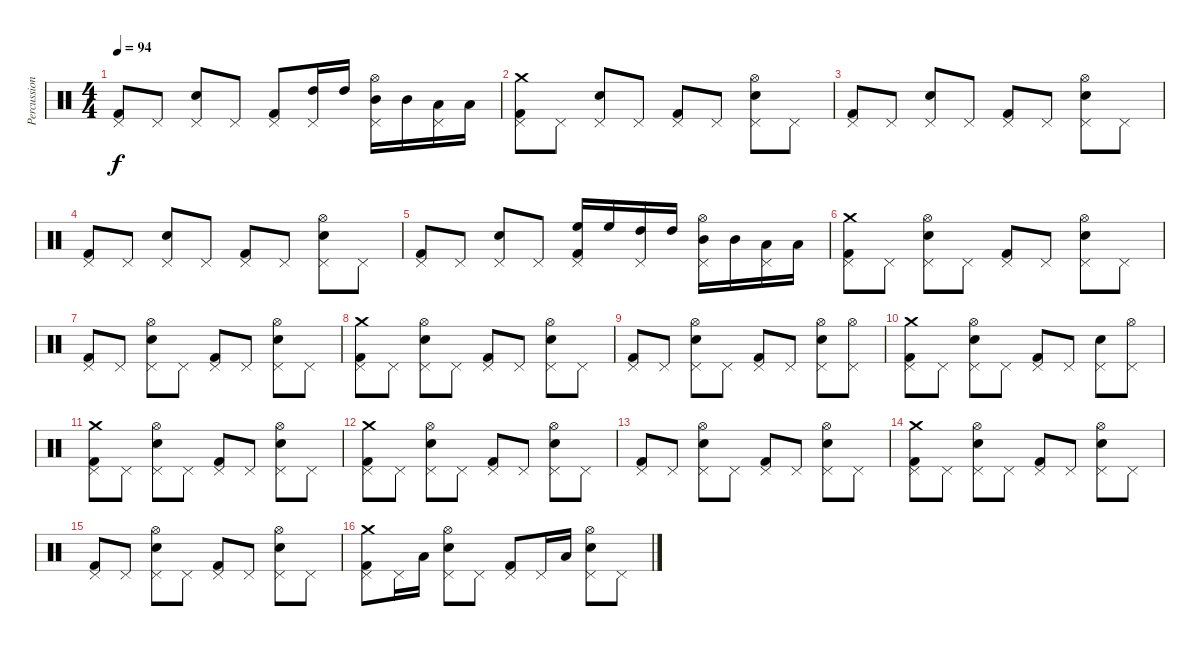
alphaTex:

\track ("Percussions" "Percussion") {instrument percussion}
\staff {score}
\articulation defaults
\ts (4 4)
\tempo 94
\clef neutral
\ks c
("Pedal Hi-Hat (hit)" "Kick (hit) 2").8{dy f} "Pedal Hi-Hat (hit)".8 ("Pedal Hi-Hat (hit)" "Electric Snare (hit)").8 "Pedal Hi-Hat (hit)".8 ("Pedal Hi-Hat (hit)" "Kick (hit) 2").8 ("Pedal Hi-Hat (hit)" "High Tom (hit)").16 "High Tom (hit)".16 ("Pedal Hi-Hat (hit)" "Mid Tom (hit)" "Hi-Hat (open)").16 "Mid Tom (hit)".16 ("Pedal Hi-Hat (hit)" "Low Tom (hit)").16 "Low Tom (hit)".16 |
("Pedal Hi-Hat (hit)" "Crash medium (hit)" "Kick (hit) 2").8 "Pedal Hi-Hat (hit)".8 ("Pedal Hi-Hat (hit)" "Electric Snare (hit)").8 "Pedal Hi-Hat (hit)".8 ("Pedal Hi-Hat (hit)" "Kick (hit) 2").8 "Pedal Hi-Hat (hit)".8 ("Pedal Hi-Hat (hit)" "Electric Snare (hit)" "Hi-Hat (open)").8 "Pedal Hi-Hat (hit)".8 |
("Pedal Hi-Hat (hit)" "Kick (hit) 2").8 "Pedal Hi-Hat (hit)".8 ("Pedal Hi-Hat (hit)" "Electric Snare (hit)").8 "Pedal Hi-Hat (hit)".8 ("Pedal Hi-Hat (hit)" "Kick (hit) 2").8 "Pedal Hi-Hat (hit)".8 ("Pedal Hi-Hat (hit)" "Electric Snare (hit)" "Hi-Hat (open)").8 "Pedal Hi-Hat (hit)".8 |
("Pedal Hi-Hat (hit)" "Kick (hit) 2").8 "Pedal Hi-Hat (hit)".8 ("Pedal Hi-Hat (hit)" "Electric Snare (hit)").8 "Pedal Hi-Hat (hit)".8 ("Pedal Hi-Hat (hit)" "Kick (hit) 2").8 "Pedal Hi-Hat (hit)".8 ("Pedal Hi-Hat (hit)" "Electric Snare (hit)" "Hi-Hat (open)").8 "Pedal Hi-Hat (hit)".8 |
("Pedal Hi-Hat (hit)" "Kick (hit) 2").8 "Pedal Hi-Hat (hit)".8 ("Pedal Hi-Hat (hit)" "Electric Snare (hit)").8 "Pedal Hi-Hat (hit)".8 ("Pedal Hi-Hat (hit)" "High Floor Tom (hit)" "Kick (hit) 2").16 "High Floor Tom (hit)".16 ("Pedal Hi-Hat (hit)" "High Tom (hit)").16 "High Tom (hit)".16 ("Pedal Hi-Hat (hit)" "Mid Tom (hit)" "Hi-Hat (open)").16 "Mid Tom (hit)".16 ("Pedal Hi-Hat (hit)" "Low Tom (hit)").16 "Low Tom (hit)".16 |
("Pedal Hi-Hat (hit)" "Crash medium (hit)" "Kick (hit) 2").8 "Pedal Hi-Hat (hit)".8 ("Pedal Hi-Hat (hit)" "Electric Snare (hit)" "Hi-Hat (open)").8 "Pedal Hi-Hat (hit)".8 ("Pedal Hi-Hat (hit)" "Kick (hit) 2").8 "Pedal Hi-Hat (hit)".8 ("Pedal Hi-Hat (hit)" "Electric Snare (hit)" "Hi-Hat (open)").8 "Pedal Hi-Hat (hit)".8 |
("Pedal Hi-Hat (hit)" "Kick (hit) 2").8 "Pedal Hi-Hat (hit)".8 ("Pedal Hi-Hat (hit)" "Electric Snare (hit)" "Hi-Hat (open)").8 "Pedal Hi-Hat (hit)".8 ("Pedal Hi-Hat (hit)" "Kick (hit) 2").8 "Pedal Hi-Hat (hit)".8 ("Pedal Hi-Hat (hit)" "Electric Snare (hit)" "Hi-Hat (open)").8 "Pedal Hi-Hat (hit)".8 |
("Pedal Hi-Hat (hit)" "Crash medium (hit)" "Kick (hit) 2").8 "Pedal Hi-Hat (hit)".8 ("Pedal Hi-Hat (hit)" "Electric Snare (hit)" "Hi-Hat (open)").8 "Pedal Hi-Hat (hit)".8 ("Pedal Hi-Hat (hit)" "Kick (hit) 2").8 "Pedal Hi-Hat (hit)".8 ("Pedal Hi-Hat (hit)" "Electric Snare (hit)" "Hi-Hat (open)").8 "Pedal Hi-Hat (hit)".8 |
("Pedal Hi-Hat (hit)" "Kick (hit) 2").8 "Pedal Hi-Hat (hit)".8 ("Pedal Hi-Hat (hit)" "Electric Snare (hit)" "Hi-Hat (open)").8 "Pedal Hi-Hat (hit)".8 ("Pedal Hi-Hat (hit)" "Kick (hit) 2").8 "Pedal Hi-Hat (hit)".8 ("Pedal Hi-Hat (hit)" "Electric Snare (hit)" "Hi-Hat (open)").8 ("Pedal Hi-Hat (hit)" "Hi-Hat (open)").8 |
("Pedal Hi-Hat (hit)" "Crash medium (hit)" "Kick (hit) 2").8 "Pedal Hi-Hat (hit)".8 ("Pedal Hi-Hat (hit)" "Electric Snare (hit)" "Hi-Hat (open)").8 "Pedal Hi-Hat (hit)".8 ("Pedal Hi-Hat (hit)" "Kick (hit) 2").8 "Pedal Hi-Hat (hit)".8 ("Pedal Hi-Hat (hit)" "Electric Snare (hit)").8 ("Pedal Hi-Hat (hit)" "Hi-Hat (open)").8 |
("Pedal Hi-Hat (hit)" "Crash medium (hit)" "Kick (hit) 2").8 "Pedal Hi-Hat (hit)".8 ("Pedal Hi-Hat (hit)" "Electric Snare (hit)" "Hi-Hat (open)").8 "Pedal Hi-Hat (hit)".8 ("Pedal Hi-Hat (hit)" "Kick (hit) 2").8 "Pedal Hi-Hat (hit)".8 ("Pedal Hi-Hat (hit)" "Electric Snare (hit)" "Hi-Hat (open)").8 "Pedal Hi-Hat (hit)".8 |
("Pedal Hi-Hat (hit)" "Crash medium (hit)" "Kick (hit) 2").8 "Pedal Hi-Hat (hit)".8 ("Pedal Hi-Hat (hit)" "Electric Snare (hit)" "Hi-Hat (open)").8 "Pedal Hi-Hat (hit)".8 ("Pedal Hi-Hat (hit)" "Kick (hit) 2").8 "Pedal Hi-Hat (hit)".8 ("Pedal Hi-Hat (hit)" "Electric Snare (hit)" "Hi-Hat (open)").8 "Pedal Hi-Hat (hit)".8 |
("Pedal Hi-Hat (hit)" "Kick (hit) 2").8 "Pedal Hi-Hat (hit)".8 ("Pedal Hi-Hat (hit)" "Electric Snare (hit)" "Hi-Hat (open)").8 "Pedal Hi-Hat (hit)".8 ("Pedal Hi-Hat (hit)" "Kick (hit) 2").8 "Pedal Hi-Hat (hit)".8 ("Pedal Hi-Hat (hit)" "Electric Snare (hit)" "Hi-Hat (open)").8 "Pedal Hi-Hat (hit)".8 |
("Pedal Hi-Hat (hit)" "Crash medium (hit)" "Kick (hit) 2").8 "Pedal Hi-Hat (hit)".8 ("Pedal Hi-Hat (hit)" "Electric Snare (hit)" "Hi-Hat (open)").8 "Pedal Hi-Hat (hit)".8 ("Pedal Hi-Hat (hit)" "Kick (hit) 2").8 "Pedal Hi-Hat (hit)".8 ("Pedal Hi-Hat (hit)" "Electric Snare (hit)" "Hi-Hat (open)").8 "Pedal Hi-Hat (hit)".8 |
("Pedal Hi-Hat (hit)" "Kick (hit) 2").8 "Pedal Hi-Hat (hit)".8 ("Pedal Hi-Hat (hit)" "Electric Snare (hit)" "Hi-Hat (open)").8 "Pedal Hi-Hat (hit)".8 ("Pedal Hi-Hat (hit)" "Kick (hit) 2").8 "Pedal Hi-Hat (hit)".8 ("Pedal Hi-Hat (hit)" "Electric Snare (hit)" "Hi-Hat (open)").8 "Pedal Hi-Hat (hit)".8 |
("Pedal Hi-Hat (hit)" "Crash medium (hit)" "Kick (hit) 2").8 "Pedal Hi-Hat (hit)".16 "Low Floor Tom (hit)".16 ("Pedal Hi-Hat (hit)" "Electric Snare (hit)" "Hi-Hat (open)").8 "Pedal Hi-Hat (hit)".8 ("Pedal Hi-Hat (hit)" "Kick (hit) 2").8 "Pedal Hi-Hat (hit)".16 "Low Floor Tom (hit)".16 ("Pedal Hi-Hat (hit)" "Electric Snare (hit)" "Hi-Hat (open)").8 "Pedal Hi-Hat (hit)".8
